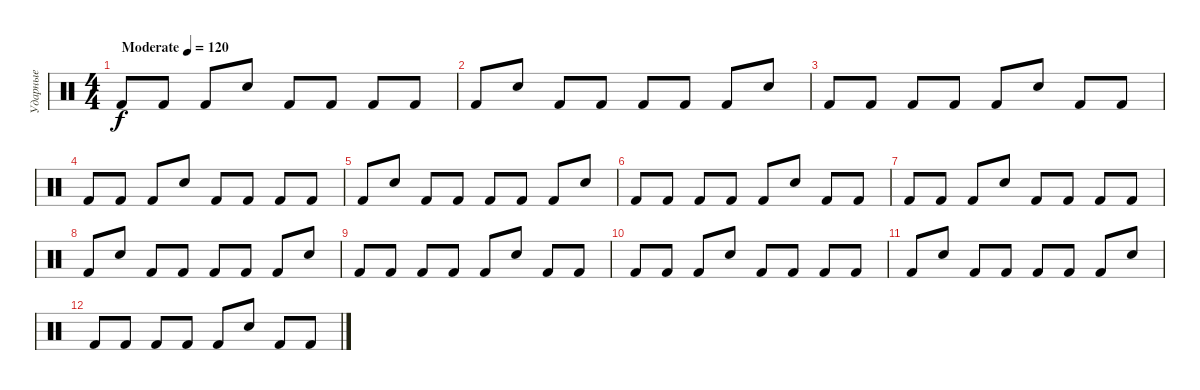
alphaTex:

\track ("Ударные" "Ударные") {instrument percussion}
\staff {score}
\articulation defaults
\ts (4 4)
\tempo (120 "Moderate")
\clef neutral
\ks c "Kick (hit) 2".8{dy f} "Kick (hit) 2".8 "Kick (hit) 2".8 "Snare (hit) 2".8 "Kick (hit) 2".8 "Kick (hit) 2".8 "Kick (hit) 2".8 "Kick (hit) 2".8
|
"Kick (hit) 2".8 "Snare (hit) 2".8 "Kick (hit) 2".8 "Kick (hit) 2".8 "Kick (hit) 2".8 "Kick (hit) 2".8 "Kick (hit) 2".8 "Snare (hit) 2".8 |
"Kick (hit) 2".8 "Kick (hit) 2".8 "Kick (hit) 2".8 "Kick (hit) 2".8 "Kick (hit) 2".8 "Snare (hit) 2".8 "Kick (hit) 2".8 "Kick (hit) 2".8 |
"Kick (hit) 2".8 "Kick (hit) 2".8 "Kick (hit) 2".8 "Snare (hit) 2".8 "Kick (hit) 2".8 "Kick (hit) 2".8 "Kick (hit) 2".8 "Kick (hit) 2".8 |
"Kick (hit) 2".8 "Snare (hit) 2".8 "Kick (hit) 2".8 "Kick (hit) 2".8 "Kick (hit) 2".8 "Kick (hit) 2".8 "Kick (hit) 2".8 "Snare (hit) 2".8 |
"Kick (hit) 2".8 "Kick (hit) 2".8 "Kick (hit) 2".8 "Kick (hit) 2".8 "Kick (hit) 2".8 "Snare (hit) 2".8 "Kick (hit) 2".8 "Kick (hit) 2".8 |
"Kick (hit) 2".8 "Kick (hit) 2".8 "Kick (hit) 2".8 "Snare (hit) 2".8 "Kick (hit) 2".8 "Kick (hit) 2".8 "Kick (hit) 2".8 "Kick (hit) 2".8 |
"Kick (hit) 2".8 "Snare (hit) 2".8 "Kick (hit) 2".8 "Kick (hit) 2".8 "Kick (hit) 2".8 "Kick (hit) 2".8 "Kick (hit) 2".8 "Snare (hit) 2".8 |
"Kick (hit) 2".8 "Kick (hit) 2".8 "Kick (hit) 2".8 "Kick (hit) 2".8 "Kick (hit) 2".8 "Snare (hit) 2".8 "Kick (hit) 2".8 "Kick (hit) 2".8 |
"Kick (hit) 2".8 "Kick (hit) 2".8 "Kick (hit) 2".8 "Snare (hit) 2".8 "Kick (hit) 2".8 "Kick (hit) 2".8 "Kick (hit) 2".8 "Kick (hit) 2".8 |
"Kick (hit) 2".8 "Snare (hit) 2".8 "Kick (hit) 2".8 "Kick (hit) 2".8 "Kick (hit) 2".8 "Kick (hit) 2".8 "Kick (hit) 2".8 "Snare (hit) 2".8 |
"Kick (hit) 2".8 "Kick (hit) 2".8 "Kick (hit) 2".8 "Kick (hit) 2".8 "Kick (hit) 2".8 "Snare (hit) 2".8 "Kick (hit) 2".8 "Kick (hit) 2".8
